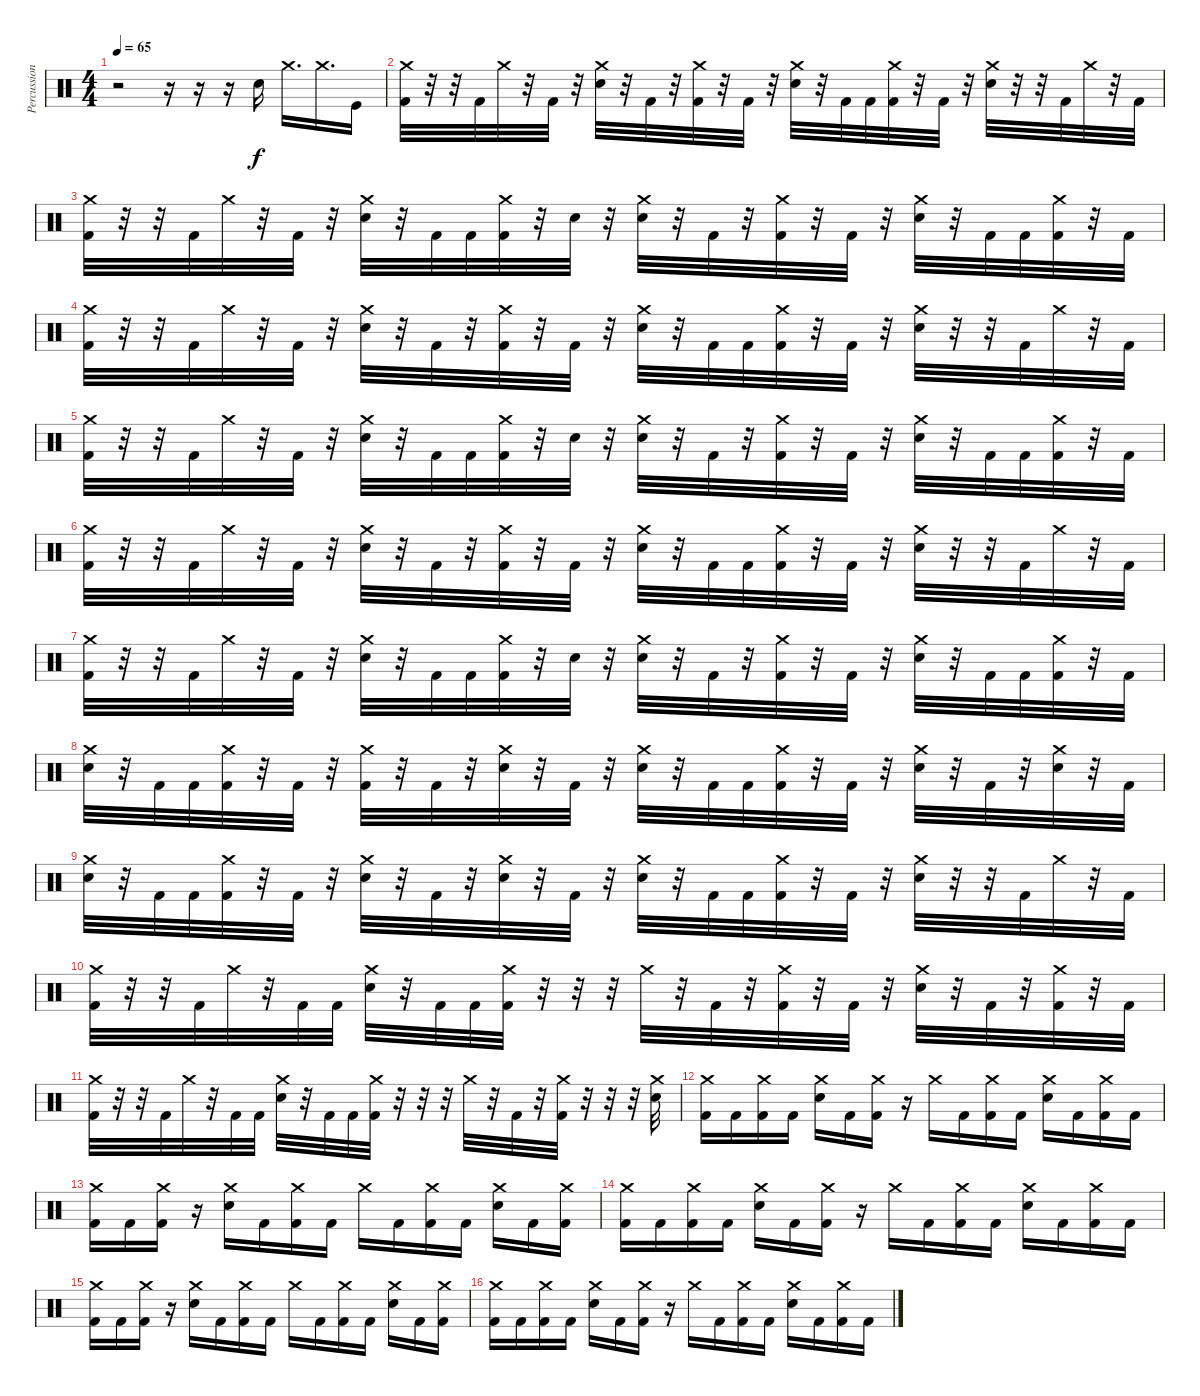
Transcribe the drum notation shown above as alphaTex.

\track ("Percussion" "Percussion") {instrument percussion}
\staff {score}
\articulation defaults
\ts (4 4)
\tempo 65
\clef neutral
\ks c
r.2{dy f} r.16 r.16 r.16 "Snare (hit) 2".16 "Crash medium (hit)".16{d} "Crash medium (hit)".16{d} "Kick (hit)".16 |
("Crash medium (hit)" "Kick (hit) 2").32 r.32 r.32 "Kick (hit) 2".32 "Crash medium (hit)".32 r.32 "Kick (hit) 2".32 r.32 ("Crash medium (hit)" "Snare (hit) 2").32 r.32 "Kick (hit) 2".32 r.32 ("Crash medium (hit)" "Kick (hit) 2").32 r.32 "Kick (hit) 2".32 r.32 ("Crash medium (hit)" "Snare (hit) 2").32 r.32 "Kick (hit) 2".32 "Kick (hit) 2".32 ("Crash medium (hit)" "Kick (hit) 2").32 r.32 "Kick (hit) 2".32 r.32 ("Crash medium (hit)" "Snare (hit) 2").32 r.32 r.32 "Kick (hit) 2".32 "Crash medium (hit)".32 r.32 "Kick (hit) 2".32 |
("Crash medium (hit)" "Kick (hit) 2").32 r.32 r.32 "Kick (hit) 2".32 "Crash medium (hit)".32 r.32 "Kick (hit) 2".32 r.32 ("Crash medium (hit)" "Snare (hit) 2").32 r.32 "Kick (hit) 2".32 "Kick (hit) 2".32 ("Crash medium (hit)" "Kick (hit) 2").32 r.32 "Snare (hit) 2".32 r.32 ("Crash medium (hit)" "Snare (hit) 2").32 r.32 "Kick (hit) 2".32 r.32 ("Crash medium (hit)" "Kick (hit) 2").32 r.32 "Kick (hit) 2".32 r.32 ("Crash medium (hit)" "Snare (hit) 2").32 r.32 "Kick (hit) 2".32 "Kick (hit) 2".32 ("Crash medium (hit)" "Kick (hit) 2").32 r.32 "Kick (hit) 2".32 |
("Crash medium (hit)" "Kick (hit) 2").32 r.32 r.32 "Kick (hit) 2".32 "Crash medium (hit)".32 r.32 "Kick (hit) 2".32 r.32 ("Crash medium (hit)" "Snare (hit) 2").32 r.32 "Kick (hit) 2".32 r.32 ("Crash medium (hit)" "Kick (hit) 2").32 r.32 "Kick (hit) 2".32 r.32 ("Crash medium (hit)" "Snare (hit) 2").32 r.32 "Kick (hit) 2".32 "Kick (hit) 2".32 ("Crash medium (hit)" "Kick (hit) 2").32 r.32 "Kick (hit) 2".32 r.32 ("Crash medium (hit)" "Snare (hit) 2").32 r.32 r.32 "Kick (hit) 2".32 "Crash medium (hit)".32 r.32 "Kick (hit) 2".32 |
("Crash medium (hit)" "Kick (hit) 2").32 r.32 r.32 "Kick (hit) 2".32 "Crash medium (hit)".32 r.32 "Kick (hit) 2".32 r.32 ("Crash medium (hit)" "Snare (hit) 2").32 r.32 "Kick (hit) 2".32 "Kick (hit) 2".32 ("Crash medium (hit)" "Kick (hit) 2").32 r.32 "Snare (hit) 2".32 r.32 ("Crash medium (hit)" "Snare (hit) 2").32 r.32 "Kick (hit) 2".32 r.32 ("Crash medium (hit)" "Kick (hit) 2").32 r.32 "Kick (hit) 2".32 r.32 ("Crash medium (hit)" "Snare (hit) 2").32 r.32 "Kick (hit) 2".32 "Kick (hit) 2".32 ("Crash medium (hit)" "Kick (hit) 2").32 r.32 "Kick (hit) 2".32 |
("Crash medium (hit)" "Kick (hit) 2").32 r.32 r.32 "Kick (hit) 2".32 "Crash medium (hit)".32 r.32 "Kick (hit) 2".32 r.32 ("Crash medium (hit)" "Snare (hit) 2").32 r.32 "Kick (hit) 2".32 r.32 ("Crash medium (hit)" "Kick (hit) 2").32 r.32 "Kick (hit) 2".32 r.32 ("Crash medium (hit)" "Snare (hit) 2").32 r.32 "Kick (hit) 2".32 "Kick (hit) 2".32 ("Crash medium (hit)" "Kick (hit) 2").32 r.32 "Kick (hit) 2".32 r.32 ("Crash medium (hit)" "Snare (hit) 2").32 r.32 r.32 "Kick (hit) 2".32 "Crash medium (hit)".32 r.32 "Kick (hit) 2".32 |
("Crash medium (hit)" "Kick (hit) 2").32 r.32 r.32 "Kick (hit) 2".32 "Crash medium (hit)".32 r.32 "Kick (hit) 2".32 r.32 ("Crash medium (hit)" "Snare (hit) 2").32 r.32 "Kick (hit) 2".32 "Kick (hit) 2".32 ("Crash medium (hit)" "Kick (hit) 2").32 r.32 "Snare (hit) 2".32 r.32 ("Crash medium (hit)" "Snare (hit) 2").32 r.32 "Kick (hit) 2".32 r.32 ("Crash medium (hit)" "Kick (hit) 2").32 r.32 "Kick (hit) 2".32 r.32 ("Crash medium (hit)" "Snare (hit) 2").32 r.32 "Kick (hit) 2".32 "Kick (hit) 2".32 ("Crash medium (hit)" "Kick (hit) 2").32 r.32 "Kick (hit) 2".32 |
("Crash medium (hit)" "Snare (hit) 2").32 r.32 "Kick (hit) 2".32 "Kick (hit) 2".32 ("Crash medium (hit)" "Kick (hit) 2").32 r.32 "Kick (hit) 2".32 r.32 ("Crash medium (hit)" "Kick (hit) 2").32 r.32 "Kick (hit) 2".32 r.32 ("Crash medium (hit)" "Snare (hit) 2").32 r.32 "Kick (hit) 2".32 r.32 ("Crash medium (hit)" "Snare (hit) 2").32 r.32 "Kick (hit) 2".32 "Kick (hit) 2".32 ("Crash medium (hit)" "Kick (hit) 2").32 r.32 "Kick (hit) 2".32 r.32 ("Crash medium (hit)" "Snare (hit) 2").32 r.32 "Kick (hit) 2".32 r.32 ("Crash medium (hit)" "Snare (hit) 2").32 r.32 "Kick (hit) 2".32 |
("Crash medium (hit)" "Snare (hit) 2").32 r.32 "Kick (hit) 2".32 "Kick (hit) 2".32 ("Crash medium (hit)" "Kick (hit) 2").32 r.32 "Kick (hit) 2".32 r.32 ("Crash medium (hit)" "Snare (hit) 2").32 r.32 "Kick (hit) 2".32 r.32 ("Crash medium (hit)" "Snare (hit) 2").32 r.32 "Kick (hit) 2".32 r.32 ("Crash medium (hit)" "Snare (hit) 2").32 r.32 "Kick (hit) 2".32 "Kick (hit) 2".32 ("Crash medium (hit)" "Kick (hit) 2").32 r.32 "Kick (hit) 2".32 r.32 ("Crash medium (hit)" "Snare (hit) 2").32 r.32 r.32 "Kick (hit) 2".32 "Crash medium (hit)".32 r.32 "Kick (hit) 2".32 |
("Crash medium (hit)" "Kick (hit) 2").32 r.32 r.32 "Kick (hit) 2".32 "Crash medium (hit)".32 r.32 "Kick (hit) 2".32 "Kick (hit) 2".32 ("Crash medium (hit)" "Snare (hit) 2").32 r.32 "Kick (hit) 2".32 "Kick (hit) 2".32 ("Crash medium (hit)" "Kick (hit) 2").32 r.32 r.32 r.32 "Crash medium (hit)".32 r.32 "Kick (hit) 2".32 r.32 ("Crash medium (hit)" "Kick (hit) 2").32 r.32 "Kick (hit) 2".32 r.32 ("Crash medium (hit)" "Snare (hit) 2").32 r.32 "Kick (hit) 2".32 r.32 ("Crash medium (hit)" "Kick (hit) 2").32 r.32 "Kick (hit) 2".32 |
("Crash medium (hit)" "Kick (hit) 2").32 r.32 r.32 "Kick (hit) 2".32 "Crash medium (hit)".32 r.32 "Kick (hit) 2".32 "Kick (hit) 2".32 ("Crash medium (hit)" "Snare (hit) 2").32 r.32 "Kick (hit) 2".32 "Kick (hit) 2".32 ("Crash medium (hit)" "Kick (hit) 2").32 r.32 r.32 r.32 "Crash medium (hit)".32 r.32 "Kick (hit) 2".32 r.32 ("Crash medium (hit)" "Kick (hit) 2").32 r.32 r.32 r.32 ("Crash medium (hit)" "Snare (hit) 2").32 |
("Kick (hit) 2" "Crash medium (hit)").16 "Kick (hit) 2".16 ("Kick (hit) 2" "Crash medium (hit)").16 "Kick (hit) 2".16 ("Snare (hit) 2" "Crash medium (hit)").16 "Kick (hit) 2".16 ("Kick (hit) 2" "Crash medium (hit)").16 r.16 "Crash medium (hit)".16 "Kick (hit) 2".16 ("Kick (hit) 2" "Crash medium (hit)").16 "Kick (hit) 2".16 ("Snare (hit) 2" "Crash medium (hit)").16 "Kick (hit) 2".16 ("Kick (hit) 2" "Crash medium (hit)").16 "Kick (hit) 2".16 |
("Kick (hit) 2" "Crash medium (hit)").16 "Kick (hit) 2".16 ("Kick (hit) 2" "Crash medium (hit)").16 r.16 ("Snare (hit) 2" "Crash medium (hit)").16 "Kick (hit) 2".16 ("Kick (hit) 2" "Crash medium (hit)").16 "Kick (hit) 2".16 "Crash medium (hit)".16 "Kick (hit) 2".16 ("Kick (hit) 2" "Crash medium (hit)").16 "Kick (hit) 2".16 ("Snare (hit) 2" "Crash medium (hit)").16 "Kick (hit) 2".16 ("Kick (hit) 2" "Crash medium (hit)").16 |
("Kick (hit) 2" "Crash medium (hit)").16 "Kick (hit) 2".16 ("Kick (hit) 2" "Crash medium (hit)").16 "Kick (hit) 2".16 ("Snare (hit) 2" "Crash medium (hit)").16 "Kick (hit) 2".16 ("Kick (hit) 2" "Crash medium (hit)").16 r.16 "Crash medium (hit)".16 "Kick (hit) 2".16 ("Kick (hit) 2" "Crash medium (hit)").16 "Kick (hit) 2".16 ("Snare (hit) 2" "Crash medium (hit)").16 "Kick (hit) 2".16 ("Kick (hit) 2" "Crash medium (hit)").16 "Kick (hit) 2".16 |
("Kick (hit) 2" "Crash medium (hit)").16 "Kick (hit) 2".16 ("Kick (hit) 2" "Crash medium (hit)").16 r.16 ("Snare (hit) 2" "Crash medium (hit)").16 "Kick (hit) 2".16 ("Kick (hit) 2" "Crash medium (hit)").16 "Kick (hit) 2".16 "Crash medium (hit)".16 "Kick (hit) 2".16 ("Kick (hit) 2" "Crash medium (hit)").16 "Kick (hit) 2".16 ("Snare (hit) 2" "Crash medium (hit)").16 "Kick (hit) 2".16 ("Kick (hit) 2" "Crash medium (hit)").16 |
("Kick (hit) 2" "Crash medium (hit)").16 "Kick (hit) 2".16 ("Kick (hit) 2" "Crash medium (hit)").16 "Kick (hit) 2".16 ("Snare (hit) 2" "Crash medium (hit)").16 "Kick (hit) 2".16 ("Kick (hit) 2" "Crash medium (hit)").16 r.16 "Crash medium (hit)".16 "Kick (hit) 2".16 ("Kick (hit) 2" "Crash medium (hit)").16 "Kick (hit) 2".16 ("Snare (hit) 2" "Crash medium (hit)").16 "Kick (hit) 2".16 ("Kick (hit) 2" "Crash medium (hit)").16 "Kick (hit) 2".16
